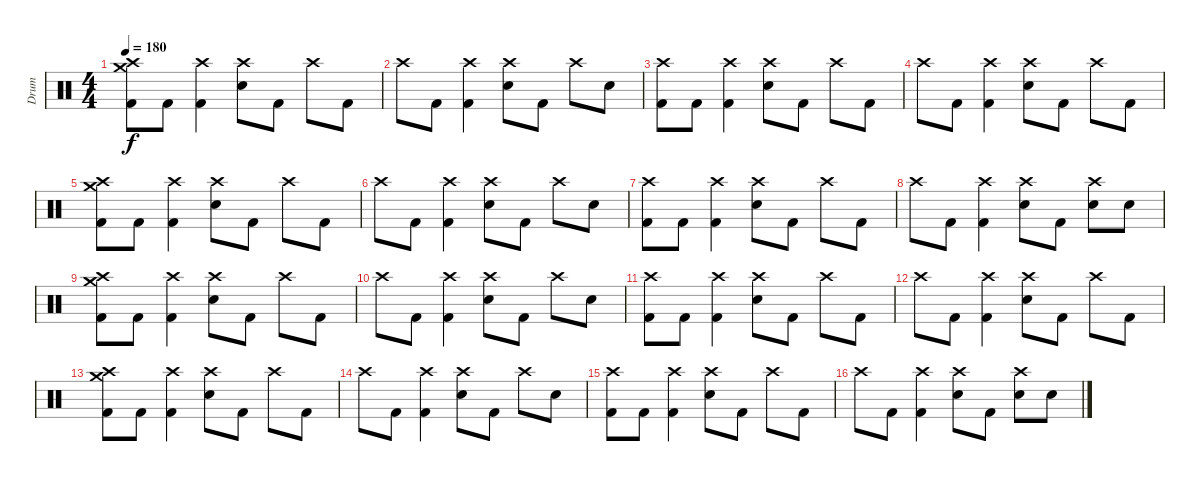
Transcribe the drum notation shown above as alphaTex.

\track ("Drum" "Drum") {instrument percussion}
\staff {score}
\articulation defaults
\ts (4 4)
\tempo 180
\clef neutral
\ks c
("Crash medium (hit)" "Crash high (hit)" "Kick (hit) 2").8{dy f} "Kick (hit) 2".8 ("Crash high (hit)" "Kick (hit) 2").4 ("Crash high (hit)" "Snare (hit) 2").8 "Kick (hit) 2".8 "Crash high (hit)".8 "Kick (hit) 2".8 |
"Crash high (hit)".8 "Kick (hit) 2".8 ("Crash high (hit)" "Kick (hit) 2").4 ("Crash high (hit)" "Snare (hit) 2").8 "Kick (hit) 2".8 "Crash high (hit)".8 "Snare (hit) 2".8 |
("Crash high (hit)" "Kick (hit) 2").8 "Kick (hit) 2".8 ("Crash high (hit)" "Kick (hit) 2").4 ("Crash high (hit)" "Snare (hit) 2").8 "Kick (hit) 2".8 "Crash high (hit)".8 "Kick (hit) 2".8 |
"Crash high (hit)".8 "Kick (hit) 2".8 ("Crash high (hit)" "Kick (hit) 2").4 ("Crash high (hit)" "Snare (hit) 2").8 "Kick (hit) 2".8 "Crash high (hit)".8 "Kick (hit) 2".8 |
("Crash high (hit)" "Crash medium (hit)" "Kick (hit) 2").8 "Kick (hit) 2".8 ("Crash high (hit)" "Kick (hit) 2").4 ("Crash high (hit)" "Snare (hit) 2").8 "Kick (hit) 2".8 "Crash high (hit)".8 "Kick (hit) 2".8 |
"Crash high (hit)".8 "Kick (hit) 2".8 ("Crash high (hit)" "Kick (hit) 2").4 ("Crash high (hit)" "Snare (hit) 2").8 "Kick (hit) 2".8 "Crash high (hit)".8 "Snare (hit) 2".8 |
("Crash high (hit)" "Kick (hit) 2").8 "Kick (hit) 2".8 ("Crash high (hit)" "Kick (hit) 2").4 ("Crash high (hit)" "Snare (hit) 2").8 "Kick (hit) 2".8 "Crash high (hit)".8 "Kick (hit) 2".8 |
"Crash high (hit)".8 "Kick (hit) 2".8 ("Crash high (hit)" "Kick (hit) 2").4 ("Crash high (hit)" "Snare (hit) 2").8 "Kick (hit) 2".8 ("Crash high (hit)" "Snare (hit) 2").8 "Snare (hit) 2".8 |
("Crash medium (hit)" "Crash high (hit)" "Kick (hit) 2").8 "Kick (hit) 2".8 ("Crash high (hit)" "Kick (hit) 2").4 ("Crash high (hit)" "Snare (hit) 2").8 "Kick (hit) 2".8 "Crash high (hit)".8 "Kick (hit) 2".8 |
"Crash high (hit)".8 "Kick (hit) 2".8 ("Crash high (hit)" "Kick (hit) 2").4 ("Crash high (hit)" "Snare (hit) 2").8 "Kick (hit) 2".8 "Crash high (hit)".8 "Snare (hit) 2".8 |
("Crash high (hit)" "Kick (hit) 2").8 "Kick (hit) 2".8 ("Crash high (hit)" "Kick (hit) 2").4 ("Crash high (hit)" "Snare (hit) 2").8 "Kick (hit) 2".8 "Crash high (hit)".8 "Kick (hit) 2".8 |
"Crash high (hit)".8 "Kick (hit) 2".8 ("Crash high (hit)" "Kick (hit) 2").4 ("Crash high (hit)" "Snare (hit) 2").8 "Kick (hit) 2".8 "Crash high (hit)".8 "Kick (hit) 2".8 |
("Crash high (hit)" "Crash medium (hit)" "Kick (hit) 2").8 "Kick (hit) 2".8 ("Crash high (hit)" "Kick (hit) 2").4 ("Crash high (hit)" "Snare (hit) 2").8 "Kick (hit) 2".8 "Crash high (hit)".8 "Kick (hit) 2".8 |
"Crash high (hit)".8 "Kick (hit) 2".8 ("Crash high (hit)" "Kick (hit) 2").4 ("Crash high (hit)" "Snare (hit) 2").8 "Kick (hit) 2".8 "Crash high (hit)".8 "Snare (hit) 2".8 |
("Crash high (hit)" "Kick (hit) 2").8 "Kick (hit) 2".8 ("Crash high (hit)" "Kick (hit) 2").4 ("Crash high (hit)" "Snare (hit) 2").8 "Kick (hit) 2".8 "Crash high (hit)".8 "Kick (hit) 2".8 |
"Crash high (hit)".8 "Kick (hit) 2".8 ("Crash high (hit)" "Kick (hit) 2").4 ("Crash high (hit)" "Snare (hit) 2").8 "Kick (hit) 2".8 ("Crash high (hit)" "Snare (hit) 2").8 "Snare (hit) 2".8
